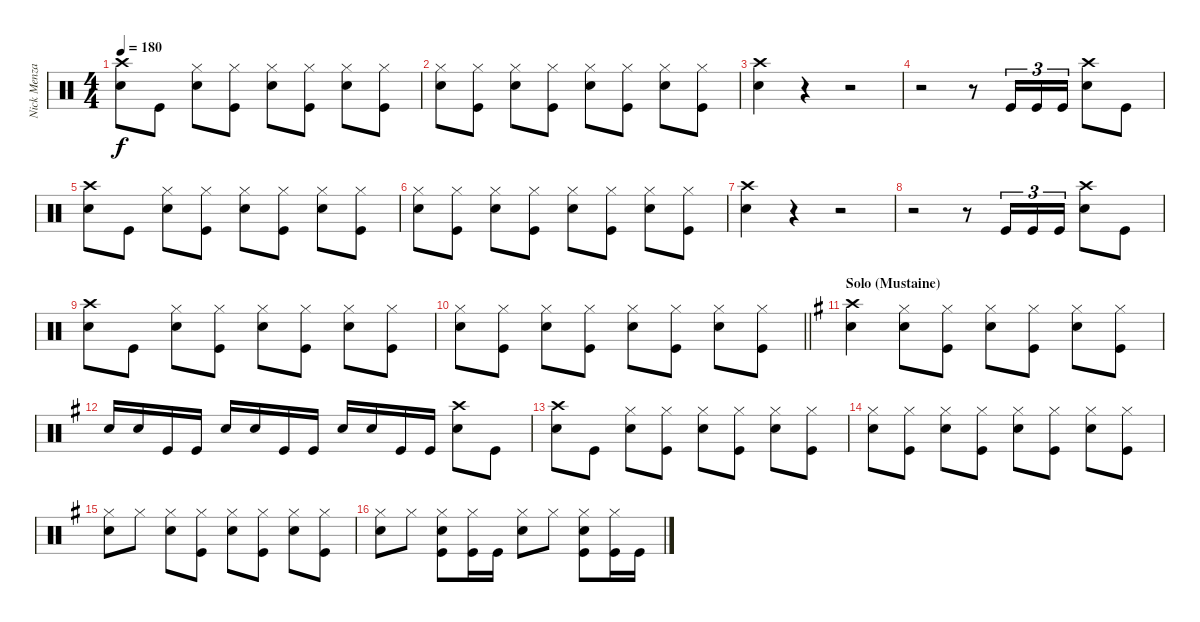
\track ("Nick Menza" "Nick Menza") {instrument percussion}
\staff {score}
\articulation defaults
\ts (4 4)
\tempo 180
\clef neutral
\ks c
("Crash high (hit)" "Snare (hit) 2").8{dy f} "Kick (hit)".8 ("Hi-Hat (closed)" "Snare (hit) 2").8 ("Kick (hit)" "Hi-Hat (closed)").8 ("Hi-Hat (closed)" "Snare (hit) 2").8 ("Kick (hit)" "Hi-Hat (closed)").8 ("Hi-Hat (closed)" "Snare (hit) 2").8 ("Kick (hit)" "Hi-Hat (closed)").8 |
("Hi-Hat (closed)" "Snare (hit) 2").8 ("Kick (hit)" "Hi-Hat (closed)").8 ("Hi-Hat (closed)" "Snare (hit) 2").8 ("Kick (hit)" "Hi-Hat (closed)").8 ("Hi-Hat (closed)" "Snare (hit) 2").8 ("Kick (hit)" "Hi-Hat (closed)").8 ("Hi-Hat (closed)" "Snare (hit) 2").8 ("Kick (hit)" "Hi-Hat (closed)").8 |
("Snare (hit) 2" "Crash high (hit)").4 r.4 r.2 |
r.2 r.8 "Kick (hit)".16{tu (3 2)} "Kick (hit)".16{tu (3 2)} "Kick (hit)".16{tu (3 2)} ("Crash high (hit)" "Snare (hit) 2").8 "Kick (hit)".8 |
("Crash high (hit)" "Snare (hit) 2").8 "Kick (hit)".8 ("Hi-Hat (closed)" "Snare (hit) 2").8 ("Kick (hit)" "Hi-Hat (closed)").8 ("Hi-Hat (closed)" "Snare (hit) 2").8 ("Kick (hit)" "Hi-Hat (closed)").8 ("Hi-Hat (closed)" "Snare (hit) 2").8 ("Kick (hit)" "Hi-Hat (closed)").8 |
("Hi-Hat (closed)" "Snare (hit) 2").8 ("Kick (hit)" "Hi-Hat (closed)").8 ("Hi-Hat (closed)" "Snare (hit) 2").8 ("Kick (hit)" "Hi-Hat (closed)").8 ("Hi-Hat (closed)" "Snare (hit) 2").8 ("Kick (hit)" "Hi-Hat (closed)").8 ("Hi-Hat (closed)" "Snare (hit) 2").8 ("Kick (hit)" "Hi-Hat (closed)").8 |
("Snare (hit) 2" "Crash high (hit)").4 r.4 r.2 |
r.2 r.8 "Kick (hit)".16{tu (3 2)} "Kick (hit)".16{tu (3 2)} "Kick (hit)".16{tu (3 2)} ("Crash high (hit)" "Snare (hit) 2").8 "Kick (hit)".8 |
("Crash high (hit)" "Snare (hit) 2").8 "Kick (hit)".8 ("Hi-Hat (closed)" "Snare (hit) 2").8 ("Kick (hit)" "Hi-Hat (closed)").8 ("Hi-Hat (closed)" "Snare (hit) 2").8 ("Kick (hit)" "Hi-Hat (closed)").8 ("Hi-Hat (closed)" "Snare (hit) 2").8 ("Kick (hit)" "Hi-Hat (closed)").8 |
\barLineRight lightlight
("Hi-Hat (closed)" "Snare (hit) 2").8 ("Kick (hit)" "Hi-Hat (closed)").8 ("Hi-Hat (closed)" "Snare (hit) 2").8 ("Kick (hit)" "Hi-Hat (closed)").8 ("Hi-Hat (closed)" "Snare (hit) 2").8 ("Kick (hit)" "Hi-Hat (closed)").8 ("Hi-Hat (closed)" "Snare (hit) 2").8 ("Kick (hit)" "Hi-Hat (closed)").8 |
\section ("" "Solo (Mustaine)")
\ks g
("Crash high (hit)" "Snare (hit) 2").4 ("Hi-Hat (closed)" "Snare (hit) 2").8 ("Kick (hit)" "Hi-Hat (closed)").8 ("Hi-Hat (closed)" "Snare (hit) 2").8 ("Kick (hit)" "Hi-Hat (closed)").8 ("Hi-Hat (closed)" "Snare (hit) 2").8 ("Kick (hit)" "Hi-Hat (closed)").8 |
"Snare (hit) 2".16 "Snare (hit) 2".16 "Kick (hit)".16 "Kick (hit)".16 "Snare (hit) 2".16 "Snare (hit) 2".16 "Kick (hit)".16 "Kick (hit)".16 "Snare (hit) 2".16 "Snare (hit) 2".16 "Kick (hit)".16 "Kick (hit)".16 ("Crash high (hit)" "Snare (hit) 2").8 "Kick (hit)".8 |
("Crash high (hit)" "Snare (hit) 2").8 "Kick (hit)".8 ("Hi-Hat (closed)" "Snare (hit) 2").8 ("Kick (hit)" "Hi-Hat (closed)").8 ("Hi-Hat (closed)" "Snare (hit) 2").8 ("Kick (hit)" "Hi-Hat (closed)").8 ("Hi-Hat (closed)" "Snare (hit) 2").8 ("Kick (hit)" "Hi-Hat (closed)").8 |
("Hi-Hat (closed)" "Snare (hit) 2").8 ("Kick (hit)" "Hi-Hat (closed)").8 ("Hi-Hat (closed)" "Snare (hit) 2").8 ("Kick (hit)" "Hi-Hat (closed)").8 ("Hi-Hat (closed)" "Snare (hit) 2").8 ("Kick (hit)" "Hi-Hat (closed)").8 ("Hi-Hat (closed)" "Snare (hit) 2").8 ("Kick (hit)" "Hi-Hat (closed)").8 |
("Hi-Hat (closed)" "Snare (hit) 2").8 "Hi-Hat (closed)".8 ("Hi-Hat (closed)" "Snare (hit) 2").8 ("Kick (hit)" "Hi-Hat (closed)").8 ("Hi-Hat (closed)" "Snare (hit) 2").8 ("Kick (hit)" "Hi-Hat (closed)").8 ("Hi-Hat (closed)" "Snare (hit) 2").8 ("Kick (hit)" "Hi-Hat (closed)").8 |
("Hi-Hat (closed)" "Snare (hit) 2").8 "Hi-Hat (closed)".8 ("Kick (hit)" "Hi-Hat (closed)" "Snare (hit) 2").8 ("Kick (hit)" "Hi-Hat (closed)").16 "Kick (hit)".16 ("Hi-Hat (closed)" "Snare (hit) 2").8 "Hi-Hat (closed)".8 ("Kick (hit)" "Hi-Hat (closed)" "Snare (hit) 2").8 ("Kick (hit)" "Hi-Hat (closed)").16 "Kick (hit)".16
